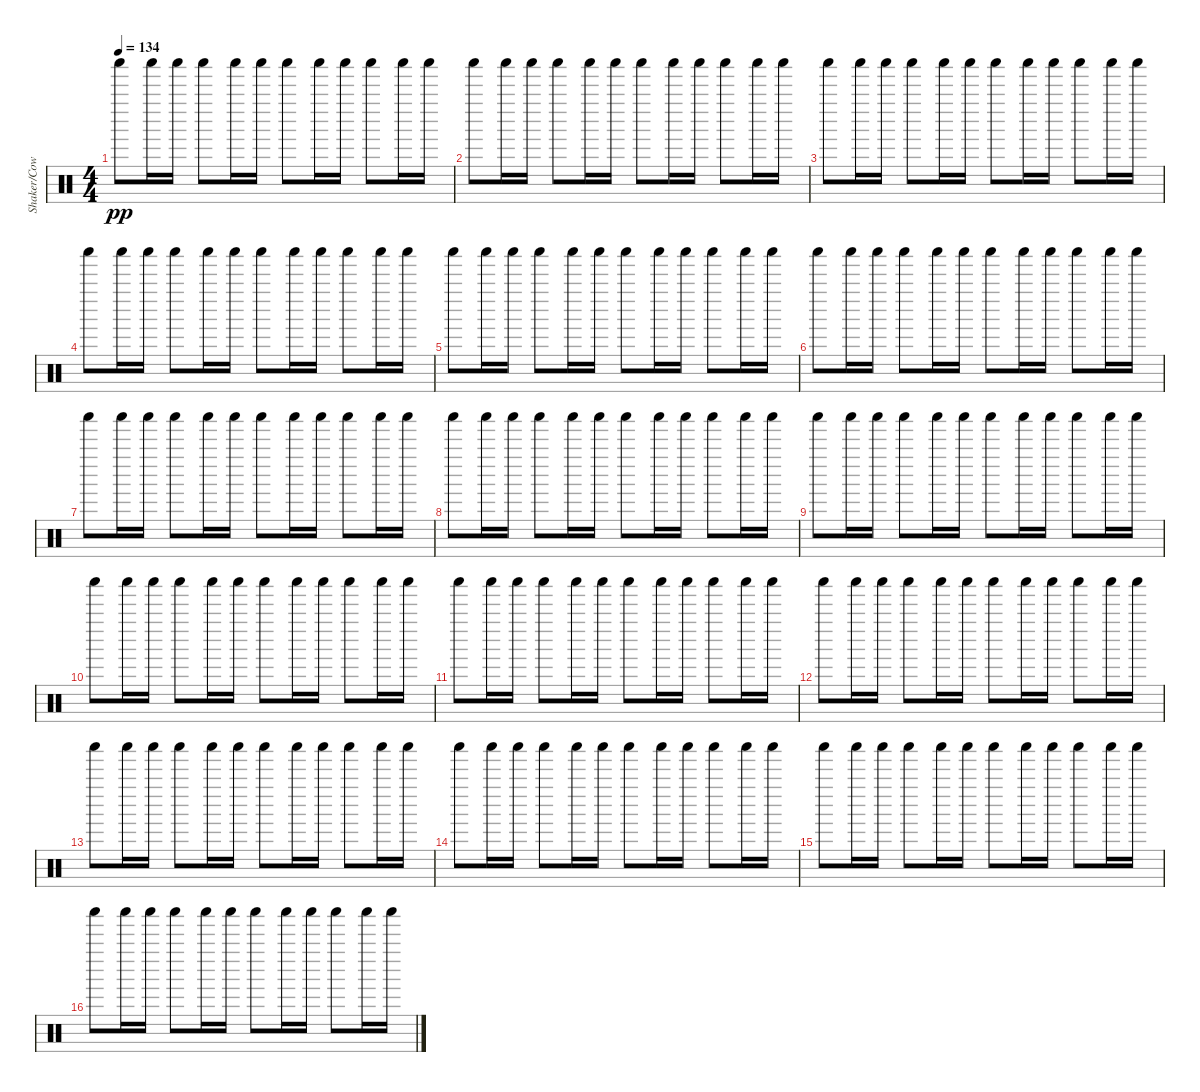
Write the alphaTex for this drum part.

\track ("Shaker/Cowbell" "Shaker/Cow") {instrument percussion}
\staff {score}
\articulation defaults
\ts (4 4)
\tempo 134
\clef neutral
\ks c "Shaker (hit)".8{dy pp} "Shaker (hit)".16 "Shaker (hit)".16 "Shaker (hit)".8 "Shaker (hit)".16 "Shaker (hit)".16 "Shaker (hit)".8 "Shaker (hit)".16 "Shaker (hit)".16 "Shaker (hit)".8 "Shaker (hit)".16 "Shaker (hit)".16
|
"Shaker (hit)".8 "Shaker (hit)".16 "Shaker (hit)".16 "Shaker (hit)".8 "Shaker (hit)".16 "Shaker (hit)".16 "Shaker (hit)".8 "Shaker (hit)".16 "Shaker (hit)".16 "Shaker (hit)".8 "Shaker (hit)".16 "Shaker (hit)".16 |
"Shaker (hit)".8 "Shaker (hit)".16 "Shaker (hit)".16 "Shaker (hit)".8 "Shaker (hit)".16 "Shaker (hit)".16 "Shaker (hit)".8 "Shaker (hit)".16 "Shaker (hit)".16 "Shaker (hit)".8 "Shaker (hit)".16 "Shaker (hit)".16 |
"Shaker (hit)".8 "Shaker (hit)".16 "Shaker (hit)".16 "Shaker (hit)".8 "Shaker (hit)".16 "Shaker (hit)".16 "Shaker (hit)".8 "Shaker (hit)".16 "Shaker (hit)".16 "Shaker (hit)".8 "Shaker (hit)".16 "Shaker (hit)".16 |
"Shaker (hit)".8 "Shaker (hit)".16 "Shaker (hit)".16 "Shaker (hit)".8 "Shaker (hit)".16 "Shaker (hit)".16 "Shaker (hit)".8 "Shaker (hit)".16 "Shaker (hit)".16 "Shaker (hit)".8 "Shaker (hit)".16 "Shaker (hit)".16 |
"Shaker (hit)".8 "Shaker (hit)".16 "Shaker (hit)".16 "Shaker (hit)".8 "Shaker (hit)".16 "Shaker (hit)".16 "Shaker (hit)".8 "Shaker (hit)".16 "Shaker (hit)".16 "Shaker (hit)".8 "Shaker (hit)".16 "Shaker (hit)".16 |
"Shaker (hit)".8 "Shaker (hit)".16 "Shaker (hit)".16 "Shaker (hit)".8 "Shaker (hit)".16 "Shaker (hit)".16 "Shaker (hit)".8 "Shaker (hit)".16 "Shaker (hit)".16 "Shaker (hit)".8 "Shaker (hit)".16 "Shaker (hit)".16 |
"Shaker (hit)".8 "Shaker (hit)".16 "Shaker (hit)".16 "Shaker (hit)".8 "Shaker (hit)".16 "Shaker (hit)".16 "Shaker (hit)".8 "Shaker (hit)".16 "Shaker (hit)".16 "Shaker (hit)".8 "Shaker (hit)".16 "Shaker (hit)".16 |
"Shaker (hit)".8 "Shaker (hit)".16 "Shaker (hit)".16 "Shaker (hit)".8 "Shaker (hit)".16 "Shaker (hit)".16 "Shaker (hit)".8 "Shaker (hit)".16 "Shaker (hit)".16 "Shaker (hit)".8 "Shaker (hit)".16 "Shaker (hit)".16 |
"Shaker (hit)".8 "Shaker (hit)".16 "Shaker (hit)".16 "Shaker (hit)".8 "Shaker (hit)".16 "Shaker (hit)".16 "Shaker (hit)".8 "Shaker (hit)".16 "Shaker (hit)".16 "Shaker (hit)".8 "Shaker (hit)".16 "Shaker (hit)".16 |
"Shaker (hit)".8 "Shaker (hit)".16 "Shaker (hit)".16 "Shaker (hit)".8 "Shaker (hit)".16 "Shaker (hit)".16 "Shaker (hit)".8 "Shaker (hit)".16 "Shaker (hit)".16 "Shaker (hit)".8 "Shaker (hit)".16 "Shaker (hit)".16 |
"Shaker (hit)".8 "Shaker (hit)".16 "Shaker (hit)".16 "Shaker (hit)".8 "Shaker (hit)".16 "Shaker (hit)".16 "Shaker (hit)".8 "Shaker (hit)".16 "Shaker (hit)".16 "Shaker (hit)".8 "Shaker (hit)".16 "Shaker (hit)".16 |
"Shaker (hit)".8 "Shaker (hit)".16 "Shaker (hit)".16 "Shaker (hit)".8 "Shaker (hit)".16 "Shaker (hit)".16 "Shaker (hit)".8 "Shaker (hit)".16 "Shaker (hit)".16 "Shaker (hit)".8 "Shaker (hit)".16 "Shaker (hit)".16 |
"Shaker (hit)".8 "Shaker (hit)".16 "Shaker (hit)".16 "Shaker (hit)".8 "Shaker (hit)".16 "Shaker (hit)".16 "Shaker (hit)".8 "Shaker (hit)".16 "Shaker (hit)".16 "Shaker (hit)".8 "Shaker (hit)".16 "Shaker (hit)".16 |
"Shaker (hit)".8 "Shaker (hit)".16 "Shaker (hit)".16 "Shaker (hit)".8 "Shaker (hit)".16 "Shaker (hit)".16 "Shaker (hit)".8 "Shaker (hit)".16 "Shaker (hit)".16 "Shaker (hit)".8 "Shaker (hit)".16 "Shaker (hit)".16 |
"Shaker (hit)".8 "Shaker (hit)".16 "Shaker (hit)".16 "Shaker (hit)".8 "Shaker (hit)".16 "Shaker (hit)".16 "Shaker (hit)".8 "Shaker (hit)".16 "Shaker (hit)".16 "Shaker (hit)".8 "Shaker (hit)".16 "Shaker (hit)".16
